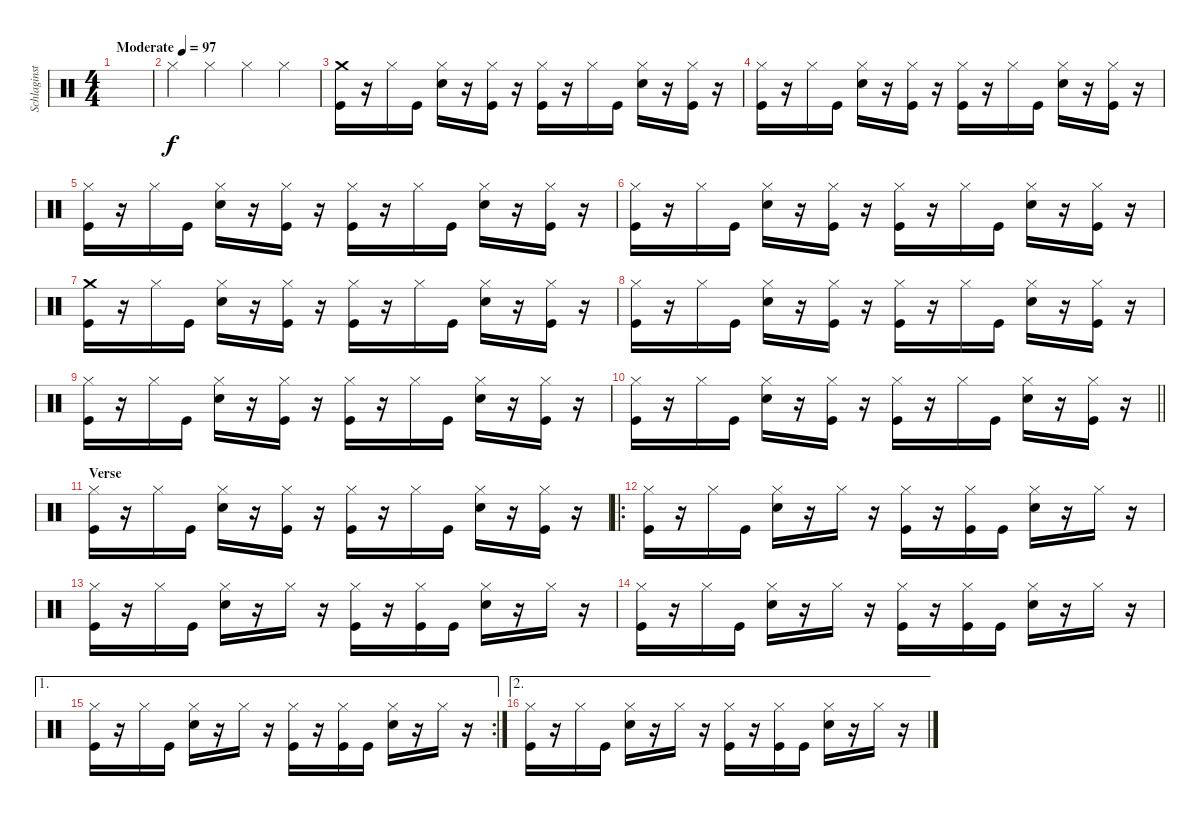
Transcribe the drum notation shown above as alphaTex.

\track ("Schlaginstrumente - Auswahl" "Schlaginst") {instrument percussion}
\staff {score}
\articulation defaults
\ts (4 4)
\tempo (97 "Moderate")
\clef neutral
\ks c
|
"Hi-Hat (closed)".4 "Hi-Hat (closed)".4 "Hi-Hat (closed)".4 "Hi-Hat (closed)".4 |
("Crash medium (hit)" "Kick (hit)").16 r.16 "Hi-Hat (closed)".16 "Kick (hit)".16 ("Hi-Hat (closed)" "Snare (hit) 2").16 r.16 ("Hi-Hat (closed)" "Kick (hit)").16 r.16 ("Hi-Hat (closed)" "Kick (hit)").16 r.16 "Hi-Hat (closed)".16 "Kick (hit)".16 ("Hi-Hat (closed)" "Snare (hit) 2").16 r.16 ("Hi-Hat (closed)" "Kick (hit)").16 r.16 |
("Hi-Hat (closed)" "Kick (hit)").16 r.16 "Hi-Hat (closed)".16 "Kick (hit)".16 ("Hi-Hat (closed)" "Snare (hit) 2").16 r.16 ("Hi-Hat (closed)" "Kick (hit)").16 r.16 ("Hi-Hat (closed)" "Kick (hit)").16 r.16 "Hi-Hat (closed)".16 "Kick (hit)".16 ("Hi-Hat (closed)" "Snare (hit) 2").16 r.16 ("Hi-Hat (closed)" "Kick (hit)").16 r.16 |
("Hi-Hat (closed)" "Kick (hit)").16 r.16 "Hi-Hat (closed)".16 "Kick (hit)".16 ("Hi-Hat (closed)" "Snare (hit) 2").16 r.16 ("Hi-Hat (closed)" "Kick (hit)").16 r.16 ("Hi-Hat (closed)" "Kick (hit)").16 r.16 "Hi-Hat (closed)".16 "Kick (hit)".16 ("Hi-Hat (closed)" "Snare (hit) 2").16 r.16 ("Hi-Hat (closed)" "Kick (hit)").16 r.16 |
("Hi-Hat (closed)" "Kick (hit)").16 r.16 "Hi-Hat (closed)".16 "Kick (hit)".16 ("Hi-Hat (closed)" "Snare (hit) 2").16 r.16 ("Hi-Hat (closed)" "Kick (hit)").16 r.16 ("Hi-Hat (closed)" "Kick (hit)").16 r.16 "Hi-Hat (closed)".16 "Kick (hit)".16 ("Hi-Hat (closed)" "Snare (hit) 2").16 r.16 ("Hi-Hat (closed)" "Kick (hit)").16 r.16 |
("Crash medium (hit)" "Kick (hit)").16 r.16 "Hi-Hat (closed)".16 "Kick (hit)".16 ("Hi-Hat (closed)" "Snare (hit) 2").16 r.16 ("Hi-Hat (closed)" "Kick (hit)").16 r.16 ("Hi-Hat (closed)" "Kick (hit)").16 r.16 "Hi-Hat (closed)".16 "Kick (hit)".16 ("Hi-Hat (closed)" "Snare (hit) 2").16 r.16 ("Hi-Hat (closed)" "Kick (hit)").16 r.16 |
("Hi-Hat (closed)" "Kick (hit)").16 r.16 "Hi-Hat (closed)".16 "Kick (hit)".16 ("Hi-Hat (closed)" "Snare (hit) 2").16 r.16 ("Hi-Hat (closed)" "Kick (hit)").16 r.16 ("Hi-Hat (closed)" "Kick (hit)").16 r.16 "Hi-Hat (closed)".16 "Kick (hit)".16 ("Hi-Hat (closed)" "Snare (hit) 2").16 r.16 ("Hi-Hat (closed)" "Kick (hit)").16 r.16 |
("Hi-Hat (closed)" "Kick (hit)").16 r.16 "Hi-Hat (closed)".16 "Kick (hit)".16 ("Hi-Hat (closed)" "Snare (hit) 2").16 r.16 ("Hi-Hat (closed)" "Kick (hit)").16 r.16 ("Hi-Hat (closed)" "Kick (hit)").16 r.16 "Hi-Hat (closed)".16 "Kick (hit)".16 ("Hi-Hat (closed)" "Snare (hit) 2").16 r.16 ("Hi-Hat (closed)" "Kick (hit)").16 r.16 |
\barLineRight lightlight
("Hi-Hat (closed)" "Kick (hit)").16 r.16 "Hi-Hat (closed)".16 "Kick (hit)".16 ("Hi-Hat (closed)" "Snare (hit) 2").16 r.16 ("Hi-Hat (closed)" "Kick (hit)").16 r.16 ("Hi-Hat (closed)" "Kick (hit)").16 r.16 "Hi-Hat (closed)".16 "Kick (hit)".16 ("Hi-Hat (closed)" "Snare (hit) 2").16 r.16 ("Hi-Hat (closed)" "Kick (hit)").16 r.16 |
\section ("" "Verse")
("Hi-Hat (closed)" "Kick (hit)").16 r.16 "Hi-Hat (closed)".16 "Kick (hit)".16 ("Hi-Hat (closed)" "Snare (hit) 2").16 r.16 ("Hi-Hat (closed)" "Kick (hit)").16 r.16 ("Hi-Hat (closed)" "Kick (hit)").16 r.16 "Hi-Hat (closed)".16 "Kick (hit)".16 ("Hi-Hat (closed)" "Snare (hit) 2").16 r.16 ("Hi-Hat (closed)" "Kick (hit)").16 r.16 |
\ro
("Hi-Hat (closed)" "Kick (hit)").16 r.16 "Hi-Hat (closed)".16 "Kick (hit)".16 ("Hi-Hat (closed)" "Snare (hit) 2").16 r.16 "Hi-Hat (closed)".16 r.16 ("Hi-Hat (closed)" "Kick (hit)").16 r.16 ("Hi-Hat (closed)" "Kick (hit)").16 "Kick (hit)".16 ("Hi-Hat (closed)" "Snare (hit) 2").16 r.16 "Hi-Hat (closed)".16 r.16 |
("Hi-Hat (closed)" "Kick (hit)").16 r.16 "Hi-Hat (closed)".16 "Kick (hit)".16 ("Hi-Hat (closed)" "Snare (hit) 2").16 r.16 "Hi-Hat (closed)".16 r.16 ("Hi-Hat (closed)" "Kick (hit)").16 r.16 ("Hi-Hat (closed)" "Kick (hit)").16 "Kick (hit)".16 ("Hi-Hat (closed)" "Snare (hit) 2").16 r.16 "Hi-Hat (closed)".16 r.16 |
("Hi-Hat (closed)" "Kick (hit)").16 r.16 "Hi-Hat (closed)".16 "Kick (hit)".16 ("Hi-Hat (closed)" "Snare (hit) 2").16 r.16 "Hi-Hat (closed)".16 r.16 ("Hi-Hat (closed)" "Kick (hit)").16 r.16 ("Hi-Hat (closed)" "Kick (hit)").16 "Kick (hit)".16 ("Hi-Hat (closed)" "Snare (hit) 2").16 r.16 "Hi-Hat (closed)".16 r.16 |
\ae 1
\rc 2
("Hi-Hat (closed)" "Kick (hit)").16 r.16 "Hi-Hat (closed)".16 "Kick (hit)".16 ("Hi-Hat (closed)" "Snare (hit) 2").16 r.16 "Hi-Hat (closed)".16 r.16 ("Hi-Hat (closed)" "Kick (hit)").16 r.16 ("Hi-Hat (closed)" "Kick (hit)").16 "Kick (hit)".16 ("Hi-Hat (closed)" "Snare (hit) 2").16 r.16 "Hi-Hat (closed)".16 r.16 |
\ae 2
("Hi-Hat (closed)" "Kick (hit)").16 r.16 "Hi-Hat (closed)".16 "Kick (hit)".16 ("Hi-Hat (closed)" "Snare (hit) 2").16 r.16 "Hi-Hat (closed)".16 r.16 ("Hi-Hat (closed)" "Kick (hit)").16 r.16 ("Hi-Hat (closed)" "Kick (hit)").16 "Kick (hit)".16 ("Hi-Hat (closed)" "Snare (hit) 2").16 r.16 "Hi-Hat (closed)".16 r.16
